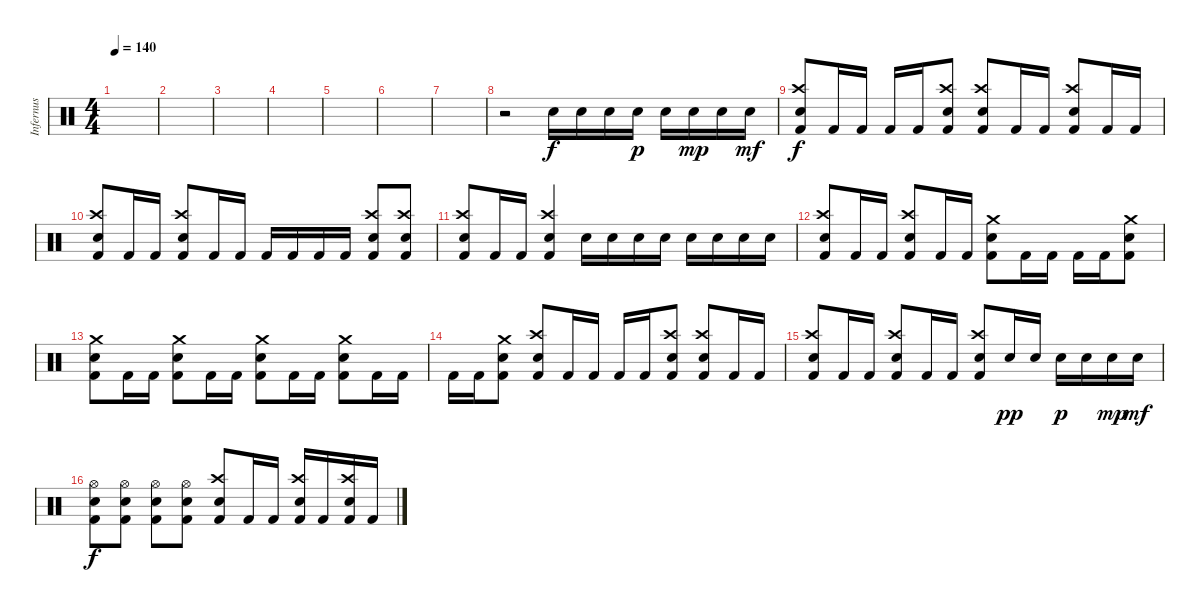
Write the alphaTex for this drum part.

\track ("Infernus" "Infernus") {instrument percussion}
\staff {score}
\articulation defaults
\ts (4 4)
\tempo 140
\clef neutral
\ks c
|
|
|
|
|
|
|
r.2 "Electric Snare (hit)".16 "Electric Snare (hit)".16 "Electric Snare (hit)".16 "Electric Snare (hit)".16{dy p} "Electric Snare (hit)".16 "Electric Snare (hit)".16{dy mp} "Electric Snare (hit)".16 "Electric Snare (hit)".16{dy mf} |
("Crash high (hit)" "Electric Snare (hit)" "Kick (hit) 2").8{dy f} "Kick (hit) 2".16 "Kick (hit) 2".16 "Kick (hit) 2".16 "Kick (hit) 2".16 ("Crash high (hit)" "Electric Snare (hit)" "Kick (hit) 2").8 ("Crash high (hit)" "Electric Snare (hit)" "Kick (hit) 2").8 "Kick (hit) 2".16 "Kick (hit) 2".16 ("Crash high (hit)" "Electric Snare (hit)" "Kick (hit) 2").8 "Kick (hit) 2".16 "Kick (hit) 2".16 |
("Crash high (hit)" "Electric Snare (hit)" "Kick (hit) 2").8 "Kick (hit) 2".16 "Kick (hit) 2".16 ("Crash high (hit)" "Electric Snare (hit)" "Kick (hit) 2").8 "Kick (hit) 2".16 "Kick (hit) 2".16 "Kick (hit) 2".16 "Kick (hit) 2".16 "Kick (hit) 2".16 "Kick (hit) 2".16 ("Crash high (hit)" "Electric Snare (hit)" "Kick (hit) 2").8 ("Crash high (hit)" "Electric Snare (hit)" "Kick (hit) 2").8 |
("Crash high (hit)" "Electric Snare (hit)" "Kick (hit) 2").8 "Kick (hit) 2".16 "Kick (hit) 2".16 ("Crash high (hit)" "Electric Snare (hit)" "Kick (hit) 2").4 "Electric Snare (hit)".16 "Electric Snare (hit)".16 "Electric Snare (hit)".16 "Electric Snare (hit)".16 "Electric Snare (hit)".16 "Electric Snare (hit)".16 "Electric Snare (hit)".16 "Electric Snare (hit)".16 |
("Crash high (hit)" "Electric Snare (hit)" "Kick (hit) 2").8 "Kick (hit) 2".16 "Kick (hit) 2".16 ("Crash high (hit)" "Electric Snare (hit)" "Kick (hit) 2").8 "Kick (hit) 2".16 "Kick (hit) 2".16 ("Crash medium (hit)" "Electric Snare (hit)" "Kick (hit) 2").8 "Kick (hit) 2".16 "Kick (hit) 2".16 "Kick (hit) 2".16 "Kick (hit) 2".16 ("Crash medium (hit)" "Electric Snare (hit)" "Kick (hit) 2").8 |
("Crash medium (hit)" "Electric Snare (hit)" "Kick (hit) 2").8 "Kick (hit) 2".16 "Kick (hit) 2".16 ("Crash medium (hit)" "Electric Snare (hit)" "Kick (hit) 2").8 "Kick (hit) 2".16 "Kick (hit) 2".16 ("Crash medium (hit)" "Electric Snare (hit)" "Kick (hit) 2").8 "Kick (hit) 2".16 "Kick (hit) 2".16 ("Crash medium (hit)" "Electric Snare (hit)" "Kick (hit) 2").8 "Kick (hit) 2".16 "Kick (hit) 2".16 |
"Kick (hit) 2".16 "Kick (hit) 2".16 ("Crash medium (hit)" "Electric Snare (hit)" "Kick (hit) 2").8 ("Crash high (hit)" "Electric Snare (hit)" "Kick (hit) 2").8 "Kick (hit) 2".16 "Kick (hit) 2".16 "Kick (hit) 2".16 "Kick (hit) 2".16 ("Crash high (hit)" "Electric Snare (hit)" "Kick (hit) 2").8 ("Crash high (hit)" "Electric Snare (hit)" "Kick (hit) 2").8 "Kick (hit) 2".16 "Kick (hit) 2".16 |
("Crash high (hit)" "Electric Snare (hit)" "Kick (hit) 2").8 "Kick (hit) 2".16 "Kick (hit) 2".16 ("Crash high (hit)" "Electric Snare (hit)" "Kick (hit) 2").8 "Kick (hit) 2".16 "Kick (hit) 2".16 ("Crash high (hit)" "Electric Snare (hit)" "Kick (hit) 2").8 "Electric Snare (hit)".16{dy pp} "Electric Snare (hit)".16 "Electric Snare (hit)".16{dy p} "Electric Snare (hit)".16 "Electric Snare (hit)".16{dy mp} "Electric Snare (hit)".16{dy mf} |
("Hi-Hat (open)" "Electric Snare (hit)" "Kick (hit) 2").8{dy f} ("Hi-Hat (open)" "Electric Snare (hit)" "Kick (hit) 2").8 ("Hi-Hat (open)" "Electric Snare (hit)" "Kick (hit) 2").8 ("Hi-Hat (open)" "Electric Snare (hit)" "Kick (hit) 2").8 ("Crash high (hit)" "Electric Snare (hit)" "Kick (hit) 2").8 "Kick (hit) 2".16 "Kick (hit) 2".16 ("Crash high (hit)" "Electric Snare (hit)" "Kick (hit) 2").16 "Kick (hit) 2".16 ("Crash high (hit)" "Electric Snare (hit)" "Kick (hit) 2").16 "Kick (hit) 2".16
